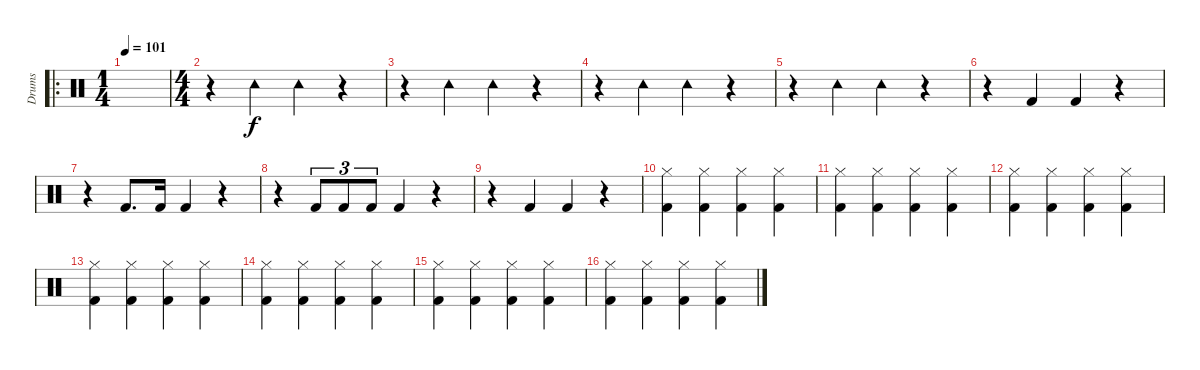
\track ("Drums" "Drums") {instrument percussion}
\staff {score}
\articulation defaults
\ro
\ts (1 4)
\tempo 101
\clef neutral
\ks c
|
\ts (4 4)
r.4 "Tambourine (hit)".4 "Tambourine (hit)".4 r.4 |
r.4 "Tambourine (hit)".4 "Tambourine (hit)".4 r.4 |
r.4 "Tambourine (hit)".4 "Tambourine (hit)".4 r.4 |
r.4 "Tambourine (hit)".4 "Tambourine (hit)".4 r.4 |
r.4 "Kick (hit) 2".4 "Kick (hit) 2".4 r.4 |
r.4 "Kick (hit) 2".8{d} "Kick (hit) 2".16 "Kick (hit) 2".4 r.4 |
r.4 "Kick (hit) 2".8{tu (3 2)} "Kick (hit) 2".8{tu (3 2)} "Kick (hit) 2".8{tu (3 2)} "Kick (hit) 2".4 r.4 |
r.4 "Kick (hit) 2".4 "Kick (hit) 2".4 r.4 |
("Hi-Hat (closed)" "Kick (hit) 2").4 ("Hi-Hat (closed)" "Kick (hit) 2").4 ("Hi-Hat (closed)" "Kick (hit) 2").4 ("Hi-Hat (closed)" "Kick (hit) 2").4 |
("Hi-Hat (closed)" "Kick (hit) 2").4 ("Hi-Hat (closed)" "Kick (hit) 2").4 ("Hi-Hat (closed)" "Kick (hit) 2").4 ("Hi-Hat (closed)" "Kick (hit) 2").4 |
("Hi-Hat (closed)" "Kick (hit) 2").4 ("Hi-Hat (closed)" "Kick (hit) 2").4 ("Hi-Hat (closed)" "Kick (hit) 2").4 ("Hi-Hat (closed)" "Kick (hit) 2").4 |
("Hi-Hat (closed)" "Kick (hit) 2").4 ("Hi-Hat (closed)" "Kick (hit) 2").4 ("Hi-Hat (closed)" "Kick (hit) 2").4 ("Hi-Hat (closed)" "Kick (hit) 2").4 |
("Hi-Hat (closed)" "Kick (hit) 2").4 ("Hi-Hat (closed)" "Kick (hit) 2").4 ("Hi-Hat (closed)" "Kick (hit) 2").4 ("Hi-Hat (closed)" "Kick (hit) 2").4 |
("Hi-Hat (closed)" "Kick (hit) 2").4 ("Hi-Hat (closed)" "Kick (hit) 2").4 ("Hi-Hat (closed)" "Kick (hit) 2").4 ("Hi-Hat (closed)" "Kick (hit) 2").4 |
("Hi-Hat (closed)" "Kick (hit) 2").4 ("Hi-Hat (closed)" "Kick (hit) 2").4 ("Hi-Hat (closed)" "Kick (hit) 2").4 ("Hi-Hat (closed)" "Kick (hit) 2").4
